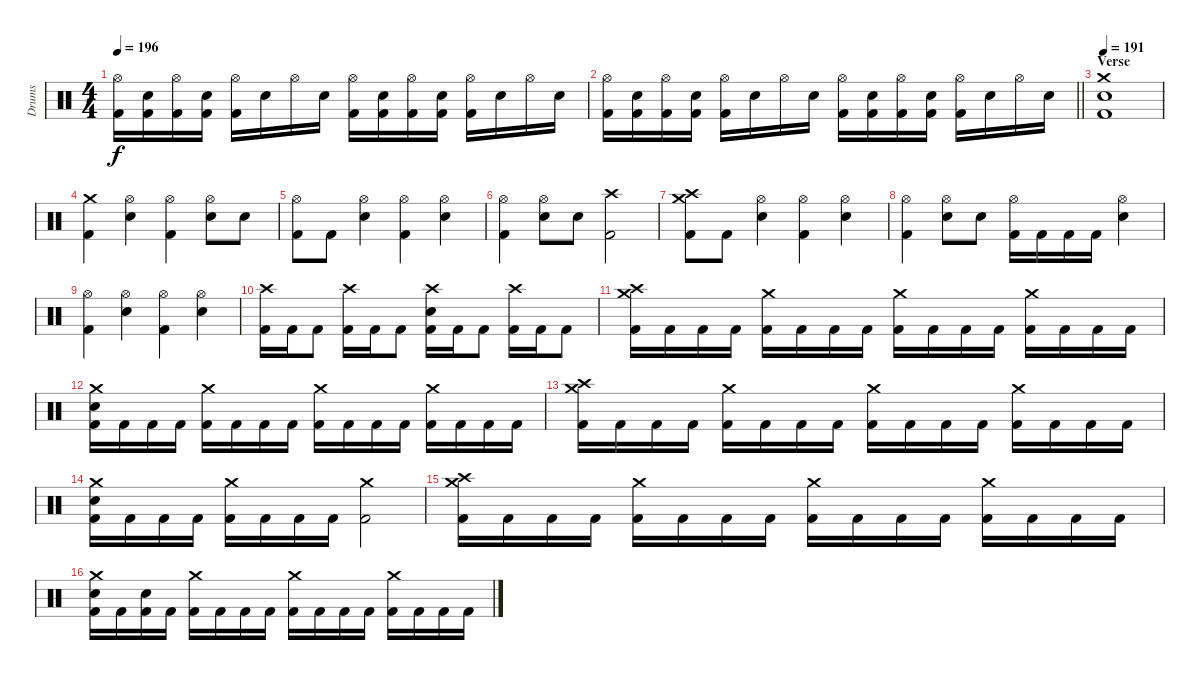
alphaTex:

\track ("Drums" "Drums") {instrument percussion}
\staff {score}
\articulation defaults
\ts (4 4)
\tempo 196
\clef neutral
\ks c
("Hi-Hat (open)" "Kick (hit) 2").16{dy f} ("Electric Snare (hit)" "Kick (hit) 2").16 ("Hi-Hat (open)" "Kick (hit) 2").16 ("Electric Snare (hit)" "Kick (hit) 2").16 ("Hi-Hat (open)" "Kick (hit) 2").16 "Electric Snare (hit)".16 "Hi-Hat (open)".16 "Electric Snare (hit)".16 ("Hi-Hat (open)" "Kick (hit) 2").16 ("Electric Snare (hit)" "Kick (hit) 2").16 ("Hi-Hat (open)" "Kick (hit) 2").16 ("Electric Snare (hit)" "Kick (hit) 2").16 ("Hi-Hat (open)" "Kick (hit) 2").16 "Electric Snare (hit)".16 "Hi-Hat (open)".16 "Electric Snare (hit)".16 |
\barLineRight lightlight
("Hi-Hat (open)" "Kick (hit) 2").16 ("Electric Snare (hit)" "Kick (hit) 2").16 ("Hi-Hat (open)" "Kick (hit) 2").16 ("Electric Snare (hit)" "Kick (hit) 2").16 ("Hi-Hat (open)" "Kick (hit) 2").16 "Electric Snare (hit)".16 "Hi-Hat (open)".16 "Electric Snare (hit)".16 ("Hi-Hat (open)" "Kick (hit) 2").16 ("Electric Snare (hit)" "Kick (hit) 2").16 ("Hi-Hat (open)" "Kick (hit) 2").16 ("Electric Snare (hit)" "Kick (hit) 2").16 ("Hi-Hat (open)" "Kick (hit) 2").16 "Electric Snare (hit)".16 "Hi-Hat (open)".16 "Electric Snare (hit)".16 |
\section ("" "Verse")
\tempo 191
("Crash medium (hit)" "Electric Snare (hit)" "Kick (hit) 2").1 |
("Crash medium (hit)" "Kick (hit) 2").4 ("Hi-Hat (open)" "Electric Snare (hit)").4 ("Hi-Hat (open)" "Kick (hit) 2").4 ("Hi-Hat (open)" "Electric Snare (hit)").8 "Electric Snare (hit)".8 |
("Hi-Hat (open)" "Kick (hit) 2").8 "Kick (hit) 2".8 ("Hi-Hat (open)" "Electric Snare (hit)").4 ("Hi-Hat (open)" "Kick (hit) 2").4 ("Hi-Hat (open)" "Electric Snare (hit)").4 |
("Hi-Hat (open)" "Kick (hit) 2").4 ("Hi-Hat (open)" "Electric Snare (hit)").8 "Electric Snare (hit)".8 ("Crash high (hit)" "Kick (hit) 2").2 |
("Crash medium (hit)" "Crash high (hit)" "Kick (hit) 2").8 "Kick (hit) 2".8 ("Hi-Hat (open)" "Electric Snare (hit)").4 ("Hi-Hat (open)" "Kick (hit) 2").4 ("Hi-Hat (open)" "Electric Snare (hit)").4 |
("Hi-Hat (open)" "Kick (hit) 2").4 ("Hi-Hat (open)" "Electric Snare (hit)").8 "Electric Snare (hit)".8 ("Hi-Hat (open)" "Kick (hit) 2").16 "Kick (hit) 2".16 "Kick (hit) 2".16 "Kick (hit) 2".16 ("Hi-Hat (open)" "Electric Snare (hit)").4 |
("Hi-Hat (open)" "Kick (hit) 2").4 ("Hi-Hat (open)" "Electric Snare (hit)").4 ("Hi-Hat (open)" "Kick (hit) 2").4 ("Hi-Hat (open)" "Electric Snare (hit)").4 |
("Crash high (hit)" "Kick (hit) 2").16 "Kick (hit) 2".16 "Kick (hit) 2".8 ("Crash high (hit)" "Kick (hit) 2").16 "Kick (hit) 2".16 "Kick (hit) 2".8 ("Crash high (hit)" "Electric Snare (hit)" "Kick (hit) 2").16 "Kick (hit) 2".16 "Kick (hit) 2".8 ("Crash high (hit)" "Kick (hit) 2").16 "Kick (hit) 2".16 "Kick (hit) 2".8 |
("Crash medium (hit)" "Crash high (hit)" "Kick (hit) 2").16 "Kick (hit) 2".16 "Kick (hit) 2".16 "Kick (hit) 2".16 ("Crash medium (hit)" "Kick (hit) 2").16 "Kick (hit) 2".16 "Kick (hit) 2".16 "Kick (hit) 2".16 ("Crash medium (hit)" "Kick (hit) 2").16 "Kick (hit) 2".16 "Kick (hit) 2".16 "Kick (hit) 2".16 ("Crash medium (hit)" "Kick (hit) 2").16 "Kick (hit) 2".16 "Kick (hit) 2".16 "Kick (hit) 2".16 |
("Crash medium (hit)" "Electric Snare (hit)" "Kick (hit) 2").16 "Kick (hit) 2".16 "Kick (hit) 2".16 "Kick (hit) 2".16 ("Crash medium (hit)" "Kick (hit) 2").16 "Kick (hit) 2".16 "Kick (hit) 2".16 "Kick (hit) 2".16 ("Crash medium (hit)" "Kick (hit) 2").16 "Kick (hit) 2".16 "Kick (hit) 2".16 "Kick (hit) 2".16 ("Crash medium (hit)" "Kick (hit) 2").16 "Kick (hit) 2".16 "Kick (hit) 2".16 "Kick (hit) 2".16 |
("Crash medium (hit)" "Crash high (hit)" "Kick (hit) 2").16 "Kick (hit) 2".16 "Kick (hit) 2".16 "Kick (hit) 2".16 ("Crash medium (hit)" "Kick (hit) 2").16 "Kick (hit) 2".16 "Kick (hit) 2".16 "Kick (hit) 2".16 ("Crash medium (hit)" "Kick (hit) 2").16 "Kick (hit) 2".16 "Kick (hit) 2".16 "Kick (hit) 2".16 ("Crash medium (hit)" "Kick (hit) 2").16 "Kick (hit) 2".16 "Kick (hit) 2".16 "Kick (hit) 2".16 |
("Crash medium (hit)" "Electric Snare (hit)" "Kick (hit) 2").16 "Kick (hit) 2".16 "Kick (hit) 2".16 "Kick (hit) 2".16 ("Crash medium (hit)" "Kick (hit) 2").16 "Kick (hit) 2".16 "Kick (hit) 2".16 "Kick (hit) 2".16 ("Crash medium (hit)" "Kick (hit) 2").2 |
("Crash medium (hit)" "Crash high (hit)" "Kick (hit) 2").16 "Kick (hit) 2".16 "Kick (hit) 2".16 "Kick (hit) 2".16 ("Crash medium (hit)" "Kick (hit) 2").16 "Kick (hit) 2".16 "Kick (hit) 2".16 "Kick (hit) 2".16 ("Crash medium (hit)" "Kick (hit) 2").16 "Kick (hit) 2".16 "Kick (hit) 2".16 "Kick (hit) 2".16 ("Crash medium (hit)" "Kick (hit) 2").16 "Kick (hit) 2".16 "Kick (hit) 2".16 "Kick (hit) 2".16 |
("Crash medium (hit)" "Electric Snare (hit)" "Kick (hit) 2").16 "Kick (hit) 2".16 ("Electric Snare (hit)" "Kick (hit) 2").16 "Kick (hit) 2".16 ("Crash medium (hit)" "Kick (hit) 2").16 "Kick (hit) 2".16 "Kick (hit) 2".16 "Kick (hit) 2".16 ("Crash medium (hit)" "Kick (hit) 2").16 "Kick (hit) 2".16 "Kick (hit) 2".16 "Kick (hit) 2".16 ("Crash medium (hit)" "Kick (hit) 2").16 "Kick (hit) 2".16 "Kick (hit) 2".16 "Kick (hit) 2".16
